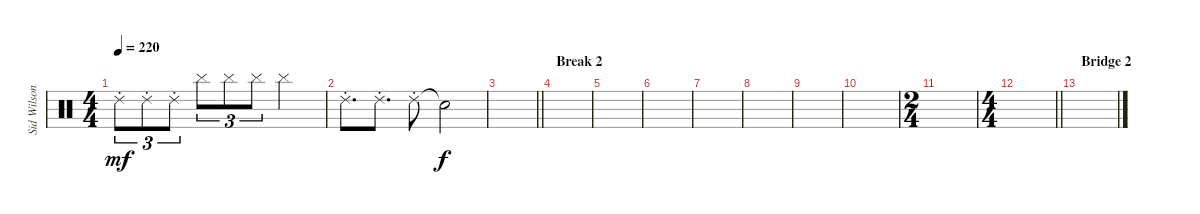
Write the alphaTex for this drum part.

\track ("Sid Wilson" "Sid Wilson") {instrument percussion}
\staff {score}
\articulation defaults
\ts (4 4)
\tempo 220
\clef neutral
\ks c "Ride (choke) 2".8{tu (3 2) dy mf} "Ride (choke) 2".8{tu (3 2)} "Ride (choke) 2".8{tu (3 2)} "Cymbal (hit)".8{tu (3 2)} "Cymbal (hit)".8{tu (3 2)} "Cymbal (hit)".8{tu (3 2)} "Cymbal (hit)".2
|
"Ride (choke) 2".8{d} "Ride (choke) 2".8{d} "Ride (choke) 2".8 "Snare (hit)"{t}.2{dy f} |
\barLineRight lightlight
|
\section ("" "Break 2")
|
|
|
|
|
|
|
\ts (2 4)
|
\ts (4 4)
\barLineRight lightlight
|
\section ("" "Bridge 2")
